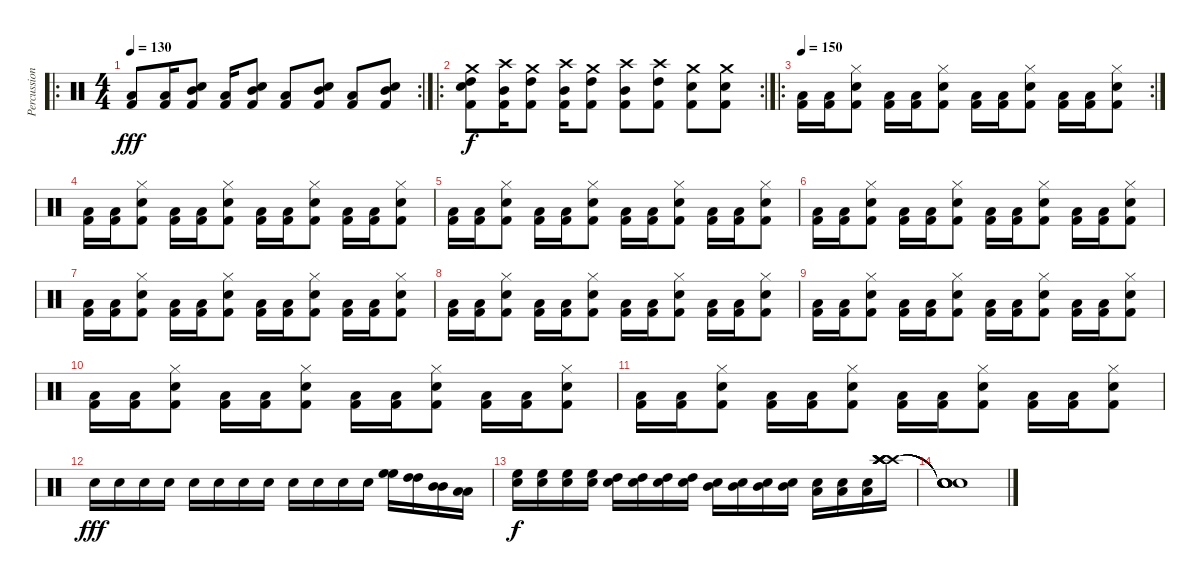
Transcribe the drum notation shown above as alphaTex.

\track ("Percussion" "Percussion") {instrument percussion}
\staff {score}
\articulation defaults
\ro
\rc 2
\ts (4 4)
\tempo 130
\clef neutral
\ks c
("Kick (hit) 2" "Low Tom (hit)").8{dy fff volume 16} ("Kick (hit) 2" "Low Tom (hit)").16 ("Snare (hit) 2" "Kick (hit) 2" "Mid Tom (hit)").8 ("Kick (hit) 2" "Low Tom (hit)").16 ("Snare (hit) 2" "Kick (hit) 2" "Mid Tom (hit)").8 ("Kick (hit) 2" "Low Tom (hit)").8 ("Snare (hit) 2" "Kick (hit) 2" "Mid Tom (hit)").8 ("Kick (hit) 2" "Low Tom (hit)").8 ("Snare (hit) 2" "Kick (hit) 2" "Mid Tom (hit)").8 |
\ro
\rc 2
("Crash medium (hit)" "Snare (hit) 2" "Kick (hit) 2" "High Tom (hit)").8{dy f} ("Crash high (hit)" "Kick (hit) 2" "Mid Tom (hit)").16 ("Crash medium (hit)" "Kick (hit) 2" "High Tom (hit)").8 ("Crash high (hit)" "Kick (hit) 2" "Mid Tom (hit)").16 ("Crash medium (hit)" "Kick (hit) 2" "High Tom (hit)").8 ("Crash high (hit)" "Kick (hit) 2" "Mid Tom (hit)").8 ("Crash high (hit)" "Kick (hit) 2" "High Tom (hit)").8 ("Crash medium (hit)" "Snare (hit) 2" "Kick (hit) 2").8 ("Crash medium (hit)" "Snare (hit) 2" "Kick (hit) 2").8 |
\ro
\rc 2
\tempo 150
("Kick (hit) 2" "Low Tom (hit)").16{volume 13} ("Kick (hit) 2" "Low Tom (hit)").16 ("Hi-Hat (closed)" "Snare (hit) 2" "Kick (hit) 2").8 ("Kick (hit) 2" "Low Tom (hit)").16 ("Kick (hit) 2" "Low Tom (hit)").16 ("Hi-Hat (closed)" "Snare (hit) 2" "Kick (hit) 2").8 ("Kick (hit) 2" "Low Tom (hit)").16 ("Kick (hit) 2" "Low Tom (hit)").16 ("Hi-Hat (closed)" "Snare (hit) 2" "Kick (hit) 2").8 ("Kick (hit) 2" "Low Tom (hit)").16 ("Kick (hit) 2" "Low Tom (hit)").16 ("Hi-Hat (closed)" "Snare (hit) 2" "Kick (hit) 2").8 |
("Kick (hit) 2" "Low Tom (hit)").16{volume 13} ("Kick (hit) 2" "Low Tom (hit)").16 ("Hi-Hat (closed)" "Snare (hit) 2" "Kick (hit) 2").8 ("Kick (hit) 2" "Low Tom (hit)").16 ("Kick (hit) 2" "Low Tom (hit)").16 ("Hi-Hat (closed)" "Snare (hit) 2" "Kick (hit) 2").8 ("Kick (hit) 2" "Low Tom (hit)").16 ("Kick (hit) 2" "Low Tom (hit)").16 ("Hi-Hat (closed)" "Snare (hit) 2" "Kick (hit) 2").8 ("Kick (hit) 2" "Low Tom (hit)").16 ("Kick (hit) 2" "Low Tom (hit)").16 ("Hi-Hat (closed)" "Snare (hit) 2" "Kick (hit) 2").8 |
("Kick (hit) 2" "Low Tom (hit)").16{volume 13} ("Kick (hit) 2" "Low Tom (hit)").16 ("Hi-Hat (closed)" "Snare (hit) 2" "Kick (hit) 2").8 ("Kick (hit) 2" "Low Tom (hit)").16 ("Kick (hit) 2" "Low Tom (hit)").16 ("Hi-Hat (closed)" "Snare (hit) 2" "Kick (hit) 2").8 ("Kick (hit) 2" "Low Tom (hit)").16 ("Kick (hit) 2" "Low Tom (hit)").16 ("Hi-Hat (closed)" "Snare (hit) 2" "Kick (hit) 2").8 ("Kick (hit) 2" "Low Tom (hit)").16 ("Kick (hit) 2" "Low Tom (hit)").16 ("Hi-Hat (closed)" "Snare (hit) 2" "Kick (hit) 2").8 |
("Kick (hit) 2" "Low Tom (hit)").16{volume 13} ("Kick (hit) 2" "Low Tom (hit)").16 ("Hi-Hat (closed)" "Snare (hit) 2" "Kick (hit) 2").8 ("Kick (hit) 2" "Low Tom (hit)").16 ("Kick (hit) 2" "Low Tom (hit)").16 ("Hi-Hat (closed)" "Snare (hit) 2" "Kick (hit) 2").8 ("Kick (hit) 2" "Low Tom (hit)").16 ("Kick (hit) 2" "Low Tom (hit)").16 ("Hi-Hat (closed)" "Snare (hit) 2" "Kick (hit) 2").8 ("Kick (hit) 2" "Low Tom (hit)").16 ("Kick (hit) 2" "Low Tom (hit)").16 ("Hi-Hat (closed)" "Snare (hit) 2" "Kick (hit) 2").8 |
("Kick (hit) 2" "Low Tom (hit)").16{volume 13} ("Kick (hit) 2" "Low Tom (hit)").16 ("Hi-Hat (closed)" "Snare (hit) 2" "Kick (hit) 2").8 ("Kick (hit) 2" "Low Tom (hit)").16 ("Kick (hit) 2" "Low Tom (hit)").16 ("Hi-Hat (closed)" "Snare (hit) 2" "Kick (hit) 2").8 ("Kick (hit) 2" "Low Tom (hit)").16 ("Kick (hit) 2" "Low Tom (hit)").16 ("Hi-Hat (closed)" "Snare (hit) 2" "Kick (hit) 2").8 ("Kick (hit) 2" "Low Tom (hit)").16 ("Kick (hit) 2" "Low Tom (hit)").16 ("Hi-Hat (closed)" "Snare (hit) 2" "Kick (hit) 2").8 |
("Kick (hit) 2" "Low Tom (hit)").16{volume 13} ("Kick (hit) 2" "Low Tom (hit)").16 ("Hi-Hat (closed)" "Snare (hit) 2" "Kick (hit) 2").8 ("Kick (hit) 2" "Low Tom (hit)").16 ("Kick (hit) 2" "Low Tom (hit)").16 ("Hi-Hat (closed)" "Snare (hit) 2" "Kick (hit) 2").8 ("Kick (hit) 2" "Low Tom (hit)").16 ("Kick (hit) 2" "Low Tom (hit)").16 ("Hi-Hat (closed)" "Snare (hit) 2" "Kick (hit) 2").8 ("Kick (hit) 2" "Low Tom (hit)").16 ("Kick (hit) 2" "Low Tom (hit)").16 ("Hi-Hat (closed)" "Snare (hit) 2" "Kick (hit) 2").8 |
("Kick (hit) 2" "Low Tom (hit)").16{volume 13} ("Kick (hit) 2" "Low Tom (hit)").16 ("Hi-Hat (closed)" "Snare (hit) 2" "Kick (hit) 2").8 ("Kick (hit) 2" "Low Tom (hit)").16 ("Kick (hit) 2" "Low Tom (hit)").16 ("Hi-Hat (closed)" "Snare (hit) 2" "Kick (hit) 2").8 ("Kick (hit) 2" "Low Tom (hit)").16 ("Kick (hit) 2" "Low Tom (hit)").16 ("Hi-Hat (closed)" "Snare (hit) 2" "Kick (hit) 2").8 ("Kick (hit) 2" "Low Tom (hit)").16 ("Kick (hit) 2" "Low Tom (hit)").16 ("Hi-Hat (closed)" "Snare (hit) 2" "Kick (hit) 2").8 |
("Kick (hit) 2" "Low Tom (hit)").16{volume 13} ("Kick (hit) 2" "Low Tom (hit)").16 ("Hi-Hat (closed)" "Snare (hit) 2" "Kick (hit) 2").8 ("Kick (hit) 2" "Low Tom (hit)").16 ("Kick (hit) 2" "Low Tom (hit)").16 ("Hi-Hat (closed)" "Snare (hit) 2" "Kick (hit) 2").8 ("Kick (hit) 2" "Low Tom (hit)").16 ("Kick (hit) 2" "Low Tom (hit)").16 ("Hi-Hat (closed)" "Snare (hit) 2" "Kick (hit) 2").8 ("Kick (hit) 2" "Low Tom (hit)").16 ("Kick (hit) 2" "Low Tom (hit)").16 ("Hi-Hat (closed)" "Snare (hit) 2" "Kick (hit) 2").8 |
("Kick (hit) 2" "Low Tom (hit)").16{volume 13} ("Kick (hit) 2" "Low Tom (hit)").16 ("Hi-Hat (closed)" "Snare (hit) 2" "Kick (hit) 2").8 ("Kick (hit) 2" "Low Tom (hit)").16 ("Kick (hit) 2" "Low Tom (hit)").16 ("Hi-Hat (closed)" "Snare (hit) 2" "Kick (hit) 2").8 ("Kick (hit) 2" "Low Tom (hit)").16 ("Kick (hit) 2" "Low Tom (hit)").16 ("Hi-Hat (closed)" "Snare (hit) 2" "Kick (hit) 2").8 ("Kick (hit) 2" "Low Tom (hit)").16 ("Kick (hit) 2" "Low Tom (hit)").16 ("Hi-Hat (closed)" "Snare (hit) 2" "Kick (hit) 2").8 |
"Snare (hit) 2".16{dy fff} "Snare (hit) 2".16 "Snare (hit) 2".16 "Snare (hit) 2".16 "Snare (hit) 2".16 "Snare (hit) 2".16 "Snare (hit) 2".16 "Snare (hit) 2".16 "Snare (hit) 2".16 "Snare (hit) 2".16 "Snare (hit) 2".16 "Snare (hit) 2".16 ("High Floor Tom (hit)" "High Floor Tom (hit)").16 ("High Tom (hit)" "High Tom (hit)").16 ("Mid Tom (hit)" "Mid Tom (hit)").16 ("Low Tom (hit)" "Low Tom (hit)").16 |
("Snare (hit) 2" "High Floor Tom (hit)").16{dy f} ("Snare (hit) 2" "High Floor Tom (hit)").16 ("Snare (hit) 2" "High Floor Tom (hit)").16 ("Snare (hit) 2" "High Floor Tom (hit)").16 ("Snare (hit) 2" "High Tom (hit)").16 ("Snare (hit) 2" "High Tom (hit)").16 ("Snare (hit) 2" "High Tom (hit)").16 ("Snare (hit) 2" "High Tom (hit)").16 ("Snare (hit) 2" "Mid Tom (hit)").16 ("Snare (hit) 2" "Mid Tom (hit)").16 ("Snare (hit) 2" "Mid Tom (hit)").16 ("Snare (hit) 2" "Mid Tom (hit)").16 ("Snare (hit) 2" "Low Tom (hit)").16 ("Snare (hit) 2" "Low Tom (hit)").16 ("Snare (hit) 2" "Low Tom (hit)").16 ("Crash high (hit)" "Crash high (hit)" "Crash high (hit)" "Crash high (hit)" "Crash high (hit)" "Crash high (hit)").16 |
("Snare (hit)"{t} "Snare (hit)"{t} "Snare (hit)"{t} "Snare (hit)"{t} "Snare (hit)"{t} "Snare (hit)"{t}).1
